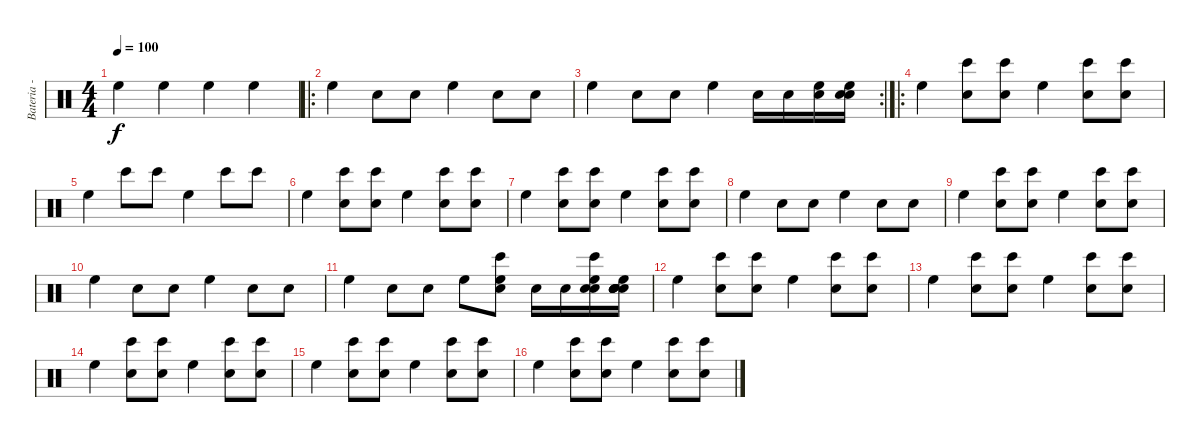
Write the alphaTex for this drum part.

\track ("Bateria - David" "Bateria - ") {instrument percussion}
\staff {score}
\articulation defaults
\ts (4 4)
\tempo 100
\clef neutral
\ks c "High Floor Tom (hit)".4{dy f} "High Floor Tom (hit)".4 "High Floor Tom (hit)".4 "High Floor Tom (hit)".4
|
\ro "High Floor Tom (hit)".4 "Electric Snare (hit)".8 "Electric Snare (hit)".8 "High Floor Tom (hit)".4 "Electric Snare (hit)".8 "Electric Snare (hit)".8
|
\rc 2 "High Floor Tom (hit)".4 "Electric Snare (hit)".8 "Electric Snare (hit)".8 "High Floor Tom (hit)".4 "Electric Snare (hit)".16 "Electric Snare (hit)".16
("High Floor Tom (hit)" "Electric Snare (hit)").16 ("High Floor Tom (hit)" "Electric Snare (hit)" "Electric Snare (hit)").16 |
\ro "High Floor Tom (hit)".4
("Bongo High (hit)" "Electric Snare (hit)").8 ("Bongo High (hit)" "Electric Snare (hit)").8 "High Floor Tom (hit)".4 ("Bongo High (hit)" "Electric Snare (hit)").8 ("Bongo High (hit)" "Electric Snare (hit)").8 |
"High Floor Tom (hit)".4 "Bongo High (hit)".8 "Bongo High (hit)".8 "High Floor Tom (hit)".4 "Bongo High (hit)".8 "Bongo High (hit)".8 |
"High Floor Tom (hit)".4 ("Bongo High (hit)" "Electric Snare (hit)").8 ("Bongo High (hit)" "Electric Snare (hit)").8 "High Floor Tom (hit)".4 ("Bongo High (hit)" "Electric Snare (hit)").8 ("Bongo High (hit)" "Electric Snare (hit)").8 |
"High Floor Tom (hit)".4 ("Bongo High (hit)" "Electric Snare (hit)").8 ("Bongo High (hit)" "Electric Snare (hit)").8 "High Floor Tom (hit)".4 ("Bongo High (hit)" "Electric Snare (hit)").8 ("Bongo High (hit)" "Electric Snare (hit)").8 |
"High Floor Tom (hit)".4 "Electric Snare (hit)".8 "Electric Snare (hit)".8 "High Floor Tom (hit)".4 "Electric Snare (hit)".8 "Electric Snare (hit)".8 |
"High Floor Tom (hit)".4 ("Bongo High (hit)" "Electric Snare (hit)").8 ("Bongo High (hit)" "Electric Snare (hit)").8 "High Floor Tom (hit)".4 ("Bongo High (hit)" "Electric Snare (hit)").8 ("Bongo High (hit)" "Electric Snare (hit)").8 |
"High Floor Tom (hit)".4 "Electric Snare (hit)".8 "Electric Snare (hit)".8 "High Floor Tom (hit)".4 "Electric Snare (hit)".8 "Electric Snare (hit)".8 |
"High Floor Tom (hit)".4 "Electric Snare (hit)".8 "Electric Snare (hit)".8 "High Floor Tom (hit)".8 ("High Floor Tom (hit)" "Bongo High (hit)" "Electric Snare (hit)").8 "Electric Snare (hit)".16 "Electric Snare (hit)".16 ("High Floor Tom (hit)" "Electric Snare (hit)" "Electric Snare (hit)" "Bongo High (hit)").16 ("High Floor Tom (hit)" "Electric Snare (hit)" "Electric Snare (hit)" "Electric Snare (hit)" "Electric Snare (hit)" "Electric Snare (hit)").16 |
"High Floor Tom (hit)".4 ("Bongo High (hit)" "Electric Snare (hit)").8 ("Bongo High (hit)" "Electric Snare (hit)").8 "High Floor Tom (hit)".4 ("Bongo High (hit)" "Electric Snare (hit)").8 ("Bongo High (hit)" "Electric Snare (hit)").8 |
"High Floor Tom (hit)".4 ("Bongo High (hit)" "Electric Snare (hit)").8 ("Bongo High (hit)" "Electric Snare (hit)").8 "High Floor Tom (hit)".4 ("Bongo High (hit)" "Electric Snare (hit)").8 ("Bongo High (hit)" "Electric Snare (hit)").8 |
"High Floor Tom (hit)".4 ("Bongo High (hit)" "Electric Snare (hit)").8 ("Bongo High (hit)" "Electric Snare (hit)").8 "High Floor Tom (hit)".4 ("Bongo High (hit)" "Electric Snare (hit)").8 ("Bongo High (hit)" "Electric Snare (hit)").8 |
"High Floor Tom (hit)".4 ("Bongo High (hit)" "Electric Snare (hit)").8 ("Bongo High (hit)" "Electric Snare (hit)").8 "High Floor Tom (hit)".4 ("Bongo High (hit)" "Electric Snare (hit)").8 ("Bongo High (hit)" "Electric Snare (hit)").8 |
"High Floor Tom (hit)".4 ("Bongo High (hit)" "Electric Snare (hit)").8 ("Bongo High (hit)" "Electric Snare (hit)").8 "High Floor Tom (hit)".4 ("Bongo High (hit)" "Electric Snare (hit)").8 ("Bongo High (hit)" "Electric Snare (hit)").8
